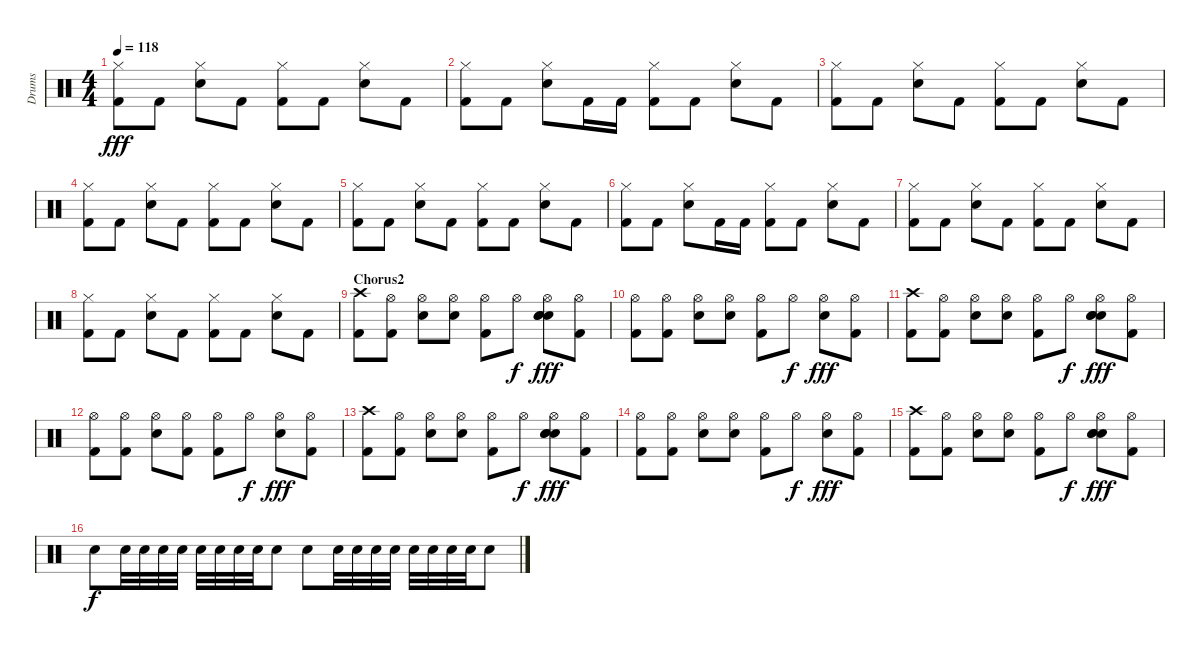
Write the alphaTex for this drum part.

\track ("Drums" "Drums") {instrument percussion}
\staff {score}
\articulation defaults
\ts (4 4)
\tempo 118
\clef neutral
\ks c
("Hi-Hat (closed)" "Kick (hit) 2").8{dy fff} "Kick (hit) 2".8 ("Hi-Hat (closed)" "Electric Snare (hit)").8 "Kick (hit) 2".8 ("Hi-Hat (closed)" "Kick (hit) 2").8 "Kick (hit) 2".8 ("Hi-Hat (closed)" "Electric Snare (hit)").8 "Kick (hit) 2".8 |
("Hi-Hat (closed)" "Kick (hit) 2").8 "Kick (hit) 2".8 ("Hi-Hat (closed)" "Electric Snare (hit)").8 "Kick (hit) 2".16 "Kick (hit) 2".16 ("Hi-Hat (closed)" "Kick (hit) 2").8 "Kick (hit) 2".8 ("Hi-Hat (closed)" "Electric Snare (hit)").8 "Kick (hit) 2".8 |
("Hi-Hat (closed)" "Kick (hit) 2").8 "Kick (hit) 2".8 ("Hi-Hat (closed)" "Electric Snare (hit)").8 "Kick (hit) 2".8 ("Hi-Hat (closed)" "Kick (hit) 2").8 "Kick (hit) 2".8 ("Hi-Hat (closed)" "Electric Snare (hit)").8 "Kick (hit) 2".8 |
("Hi-Hat (closed)" "Kick (hit) 2").8 "Kick (hit) 2".8 ("Hi-Hat (closed)" "Electric Snare (hit)").8 "Kick (hit) 2".8 ("Hi-Hat (closed)" "Kick (hit) 2").8 "Kick (hit) 2".8 ("Hi-Hat (closed)" "Electric Snare (hit)").8 "Kick (hit) 2".8 |
("Hi-Hat (closed)" "Kick (hit) 2").8 "Kick (hit) 2".8 ("Hi-Hat (closed)" "Electric Snare (hit)").8 "Kick (hit) 2".8 ("Hi-Hat (closed)" "Kick (hit) 2").8 "Kick (hit) 2".8 ("Hi-Hat (closed)" "Electric Snare (hit)").8 "Kick (hit) 2".8 |
("Hi-Hat (closed)" "Kick (hit) 2").8 "Kick (hit) 2".8 ("Hi-Hat (closed)" "Electric Snare (hit)").8 "Kick (hit) 2".16 "Kick (hit) 2".16 ("Hi-Hat (closed)" "Kick (hit) 2").8 "Kick (hit) 2".8 ("Hi-Hat (closed)" "Electric Snare (hit)").8 "Kick (hit) 2".8 |
("Hi-Hat (closed)" "Kick (hit) 2").8 "Kick (hit) 2".8 ("Hi-Hat (closed)" "Electric Snare (hit)").8 "Kick (hit) 2".8 ("Hi-Hat (closed)" "Kick (hit) 2").8 "Kick (hit) 2".8 ("Hi-Hat (closed)" "Electric Snare (hit)").8 "Kick (hit) 2".8 |
("Hi-Hat (closed)" "Kick (hit) 2").8 "Kick (hit) 2".8 ("Hi-Hat (closed)" "Electric Snare (hit)").8 "Kick (hit) 2".8 ("Hi-Hat (closed)" "Kick (hit) 2").8 "Kick (hit) 2".8 ("Hi-Hat (closed)" "Electric Snare (hit)").8 "Kick (hit) 2".8 |
\section ("" "Chorus2")
("Crash high (hit)" "Kick (hit) 2").8 ("Hi-Hat (open)" "Kick (hit) 2").8 ("Hi-Hat (open)" "Electric Snare (hit)").8 ("Hi-Hat (open)" "Electric Snare (hit)").8 ("Hi-Hat (open)" "Kick (hit) 2").8 "Hi-Hat (open)".8{dy f} ("Hi-Hat (open)" "Electric Snare (hit)" "Hand Clap (hit)" "Hand Clap (hit)").8{dy fff} ("Hi-Hat (open)" "Kick (hit) 2").8 |
("Hi-Hat (open)" "Kick (hit) 2").8 ("Hi-Hat (open)" "Kick (hit) 2").8 ("Hi-Hat (open)" "Electric Snare (hit)").8 ("Hi-Hat (open)" "Electric Snare (hit)").8 ("Hi-Hat (open)" "Kick (hit) 2").8 "Hi-Hat (open)".8{dy f} ("Hi-Hat (open)" "Electric Snare (hit)").8{dy fff} ("Hi-Hat (open)" "Kick (hit) 2").8 |
("Crash high (hit)" "Kick (hit) 2").8 ("Hi-Hat (open)" "Kick (hit) 2").8 ("Hi-Hat (open)" "Electric Snare (hit)").8 ("Hi-Hat (open)" "Electric Snare (hit)").8 ("Hi-Hat (open)" "Kick (hit) 2").8 "Hi-Hat (open)".8{dy f} ("Hi-Hat (open)" "Electric Snare (hit)" "Hand Clap (hit)" "Hand Clap (hit)").8{dy fff} ("Hi-Hat (open)" "Kick (hit) 2").8 |
("Hi-Hat (open)" "Kick (hit) 2").8 ("Hi-Hat (open)" "Kick (hit) 2").8 ("Hi-Hat (open)" "Electric Snare (hit)").8 ("Hi-Hat (open)" "Kick (hit) 2").8 ("Hi-Hat (open)" "Kick (hit) 2").8 "Hi-Hat (open)".8{dy f} ("Hi-Hat (open)" "Electric Snare (hit)").8{dy fff} ("Hi-Hat (open)" "Kick (hit) 2").8 |
("Crash high (hit)" "Kick (hit) 2").8 ("Hi-Hat (open)" "Kick (hit) 2").8 ("Hi-Hat (open)" "Electric Snare (hit)").8 ("Hi-Hat (open)" "Electric Snare (hit)").8 ("Hi-Hat (open)" "Kick (hit) 2").8 "Hi-Hat (open)".8{dy f} ("Hi-Hat (open)" "Electric Snare (hit)" "Hand Clap (hit)" "Hand Clap (hit)").8{dy fff} ("Hi-Hat (open)" "Kick (hit) 2").8 |
("Hi-Hat (open)" "Kick (hit) 2").8 ("Hi-Hat (open)" "Kick (hit) 2").8 ("Hi-Hat (open)" "Electric Snare (hit)").8 ("Hi-Hat (open)" "Electric Snare (hit)").8 ("Hi-Hat (open)" "Kick (hit) 2").8 "Hi-Hat (open)".8{dy f} ("Hi-Hat (open)" "Electric Snare (hit)").8{dy fff} ("Hi-Hat (open)" "Kick (hit) 2").8 |
("Crash high (hit)" "Kick (hit) 2").8 ("Hi-Hat (open)" "Kick (hit) 2").8 ("Hi-Hat (open)" "Electric Snare (hit)").8 ("Hi-Hat (open)" "Electric Snare (hit)").8 ("Hi-Hat (open)" "Kick (hit) 2").8 "Hi-Hat (open)".8{dy f} ("Hi-Hat (open)" "Electric Snare (hit)" "Hand Clap (hit)" "Hand Clap (hit)").8{dy fff} ("Hi-Hat (open)" "Kick (hit) 2").8 |
"Electric Snare (hit)".8{dy f} "Electric Snare (hit)".32 "Electric Snare (hit)".32 "Electric Snare (hit)".32 "Electric Snare (hit)".32 "Electric Snare (hit)".32 "Electric Snare (hit)".32 "Electric Snare (hit)".32 "Electric Snare (hit)".32 "Electric Snare (hit)".8 "Electric Snare (hit)".8 "Electric Snare (hit)".32 "Electric Snare (hit)".32 "Electric Snare (hit)".32 "Electric Snare (hit)".32 "Electric Snare (hit)".32 "Electric Snare (hit)".32 "Electric Snare (hit)".32 "Electric Snare (hit)".32 "Electric Snare (hit)".8
